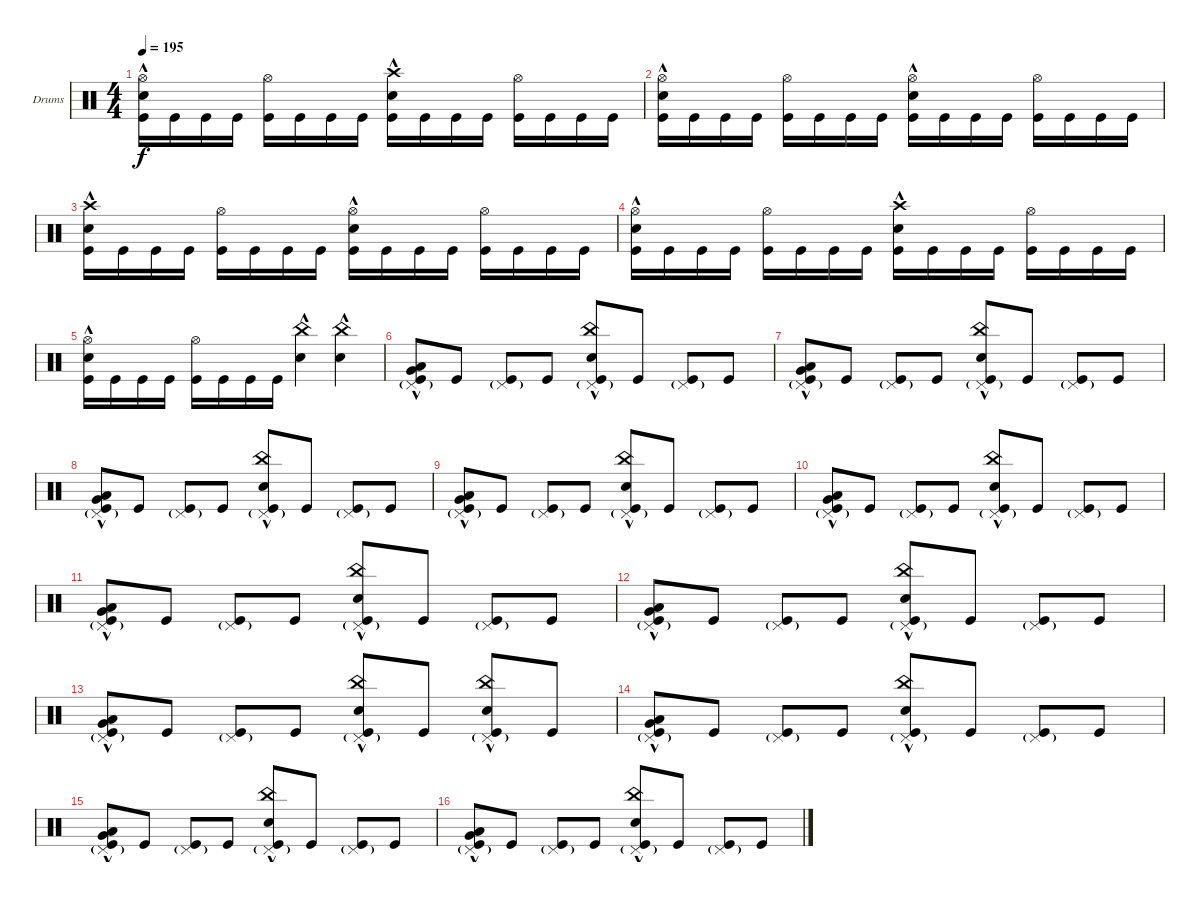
\defaultSystemsLayout 4
\bracketExtendMode groupsimilarinstruments
\firstSystemTrackNameOrientation horizontal
\otherSystemsTrackNameOrientation horizontal
\track ("Drumkit" "Drums") {instrument percussion}
\staff {score}
\articulation defaults
\ts (4 4)
\tempo 195
\clef neutral
\ks c
("Kick (hit)" "Snare (hit) 2"{hac} "Hi-Hat (open)").16{dy f} "Kick (hit)".16 "Kick (hit)".16 "Kick (hit)".16 ("Kick (hit)" "Hi-Hat (open)").16 "Kick (hit)".16 "Kick (hit)".16 "Kick (hit)".16 ("Kick (hit)" "Snare (hit) 2"{hac} "Crash high (hit)").16 "Kick (hit)".16 "Kick (hit)".16 "Kick (hit)".16 ("Kick (hit)" "Hi-Hat (open)").16 "Kick (hit)".16 "Kick (hit)".16 "Kick (hit)".16 |
("Kick (hit)" "Snare (hit) 2"{hac} "Hi-Hat (open)").16 "Kick (hit)".16 "Kick (hit)".16 "Kick (hit)".16 ("Kick (hit)" "Hi-Hat (open)").16 "Kick (hit)".16 "Kick (hit)".16 "Kick (hit)".16 ("Kick (hit)" "Snare (hit) 2"{hac} "Hi-Hat (open)").16 "Kick (hit)".16 "Kick (hit)".16 "Kick (hit)".16 ("Kick (hit)" "Hi-Hat (open)").16 "Kick (hit)".16 "Kick (hit)".16 "Kick (hit)".16 |
("Kick (hit)" "Snare (hit) 2"{hac} "Crash high (hit)").16 "Kick (hit)".16 "Kick (hit)".16 "Kick (hit)".16 ("Kick (hit)" "Hi-Hat (open)").16 "Kick (hit)".16 "Kick (hit)".16 "Kick (hit)".16 ("Kick (hit)" "Hi-Hat (open)" "Snare (hit) 2"{hac}).16 "Kick (hit)".16 "Kick (hit)".16 "Kick (hit)".16 ("Kick (hit)" "Hi-Hat (open)").16 "Kick (hit)".16 "Kick (hit)".16 "Kick (hit)".16 |
("Kick (hit)" "Snare (hit) 2"{hac} "Hi-Hat (open)").16 "Kick (hit)".16 "Kick (hit)".16 "Kick (hit)".16 ("Kick (hit)" "Hi-Hat (open)").16 "Kick (hit)".16 "Kick (hit)".16 "Kick (hit)".16 ("Kick (hit)" "Snare (hit) 2"{hac} "Crash high (hit)").16 "Kick (hit)".16 "Kick (hit)".16 "Kick (hit)".16 ("Kick (hit)" "Hi-Hat (open)").16 "Kick (hit)".16 "Kick (hit)".16 "Kick (hit)".16 |
("Kick (hit)" "Snare (hit) 2"{hac} "Hi-Hat (open)").16 "Kick (hit)".16 "Kick (hit)".16 "Kick (hit)".16 ("Kick (hit)" "Hi-Hat (open)").16 "Kick (hit)".16 "Kick (hit)".16 "Kick (hit)".16 ("Snare (hit) 2"{hac} "China (hit)"{hac}).4 ("Snare (hit) 2"{hac} "China (hit)"{hac}).4 |
("Kick (hit)" "Very Low Tom (hit)"{hac} "Low Tom (hit)"{hac} "Pedal Hi-Hat (hit)"{g}).8 "Kick (hit)".8 ("Kick (hit)" "Pedal Hi-Hat (hit)"{g}).8 "Kick (hit)".8 ("Kick (hit)" "Snare (hit) 2"{hac} "China (hit)"{hac} "Pedal Hi-Hat (hit)"{g}).8 "Kick (hit)".8 ("Kick (hit)" "Pedal Hi-Hat (hit)"{g}).8 "Kick (hit)".8 |
("Kick (hit)" "Pedal Hi-Hat (hit)"{g} "Very Low Tom (hit)"{hac} "Low Tom (hit)"{hac}).8 "Kick (hit)".8 ("Kick (hit)" "Pedal Hi-Hat (hit)"{g}).8 "Kick (hit)".8 ("Kick (hit)" "Pedal Hi-Hat (hit)"{g} "Snare (hit) 2"{hac} "China (hit)"{hac}).8 "Kick (hit)".8 ("Kick (hit)" "Pedal Hi-Hat (hit)"{g}).8 "Kick (hit)".8 |
("Kick (hit)" "Very Low Tom (hit)"{hac} "Low Tom (hit)"{hac} "Pedal Hi-Hat (hit)"{g}).8 "Kick (hit)".8 ("Kick (hit)" "Pedal Hi-Hat (hit)"{g}).8 "Kick (hit)".8 ("Kick (hit)" "Snare (hit) 2"{hac} "China (hit)"{hac} "Pedal Hi-Hat (hit)"{g}).8 "Kick (hit)".8 ("Kick (hit)" "Pedal Hi-Hat (hit)"{g}).8 "Kick (hit)".8 |
("Kick (hit)" "Pedal Hi-Hat (hit)"{g} "Very Low Tom (hit)"{hac} "Low Tom (hit)"{hac}).8 "Kick (hit)".8 ("Kick (hit)" "Pedal Hi-Hat (hit)"{g}).8 "Kick (hit)".8 ("Kick (hit)" "Pedal Hi-Hat (hit)"{g} "Snare (hit) 2"{hac} "China (hit)"{hac}).8 "Kick (hit)".8 ("Kick (hit)" "Pedal Hi-Hat (hit)"{g}).8 "Kick (hit)".8 |
("Kick (hit)" "Very Low Tom (hit)"{hac} "Low Tom (hit)"{hac} "Pedal Hi-Hat (hit)"{g}).8 "Kick (hit)".8 ("Kick (hit)" "Pedal Hi-Hat (hit)"{g}).8 "Kick (hit)".8 ("Kick (hit)" "Snare (hit) 2"{hac} "China (hit)"{hac} "Pedal Hi-Hat (hit)"{g}).8 "Kick (hit)".8 ("Kick (hit)" "Pedal Hi-Hat (hit)"{g}).8 "Kick (hit)".8 |
("Kick (hit)" "Pedal Hi-Hat (hit)"{g} "Very Low Tom (hit)"{hac} "Low Tom (hit)"{hac}).8 "Kick (hit)".8 ("Kick (hit)" "Pedal Hi-Hat (hit)"{g}).8 "Kick (hit)".8 ("Kick (hit)" "Pedal Hi-Hat (hit)"{g} "Snare (hit) 2"{hac} "China (hit)"{hac}).8 "Kick (hit)".8 ("Kick (hit)" "Pedal Hi-Hat (hit)"{g}).8 "Kick (hit)".8 |
("Kick (hit)" "Very Low Tom (hit)"{hac} "Low Tom (hit)"{hac} "Pedal Hi-Hat (hit)"{g}).8 "Kick (hit)".8 ("Kick (hit)" "Pedal Hi-Hat (hit)"{g}).8 "Kick (hit)".8 ("Kick (hit)" "Snare (hit) 2"{hac} "China (hit)"{hac} "Pedal Hi-Hat (hit)"{g}).8 "Kick (hit)".8 ("Kick (hit)" "Pedal Hi-Hat (hit)"{g}).8 "Kick (hit)".8 |
("Kick (hit)" "Pedal Hi-Hat (hit)"{g} "Very Low Tom (hit)"{hac} "Low Tom (hit)"{hac}).8 "Kick (hit)".8 ("Kick (hit)" "Pedal Hi-Hat (hit)"{g}).8 "Kick (hit)".8 ("Kick (hit)" "Pedal Hi-Hat (hit)"{g} "Snare (hit) 2"{hac} "China (hit)"{hac}).8 "Kick (hit)".8 ("Kick (hit)" "Pedal Hi-Hat (hit)"{g} "Snare (hit) 2"{hac} "China (hit)"{hac}).8 "Kick (hit)".8 |
("Kick (hit)" "Very Low Tom (hit)"{hac} "Low Tom (hit)"{hac} "Pedal Hi-Hat (hit)"{g}).8 "Kick (hit)".8 ("Kick (hit)" "Pedal Hi-Hat (hit)"{g}).8 "Kick (hit)".8 ("Kick (hit)" "Snare (hit) 2"{hac} "China (hit)"{hac} "Pedal Hi-Hat (hit)"{g}).8 "Kick (hit)".8 ("Kick (hit)" "Pedal Hi-Hat (hit)"{g}).8 "Kick (hit)".8 |
("Kick (hit)" "Pedal Hi-Hat (hit)"{g} "Very Low Tom (hit)"{hac} "Low Tom (hit)"{hac}).8 "Kick (hit)".8 ("Kick (hit)" "Pedal Hi-Hat (hit)"{g}).8 "Kick (hit)".8 ("Kick (hit)" "Pedal Hi-Hat (hit)"{g} "Snare (hit) 2"{hac} "China (hit)"{hac}).8 "Kick (hit)".8 ("Kick (hit)" "Pedal Hi-Hat (hit)"{g}).8 "Kick (hit)".8 |
("Kick (hit)" "Very Low Tom (hit)"{hac} "Low Tom (hit)"{hac} "Pedal Hi-Hat (hit)"{g}).8 "Kick (hit)".8 ("Kick (hit)" "Pedal Hi-Hat (hit)"{g}).8 "Kick (hit)".8 ("Kick (hit)" "Snare (hit) 2"{hac} "China (hit)"{hac} "Pedal Hi-Hat (hit)"{g}).8 "Kick (hit)".8 ("Kick (hit)" "Pedal Hi-Hat (hit)"{g}).8 "Kick (hit)".8
